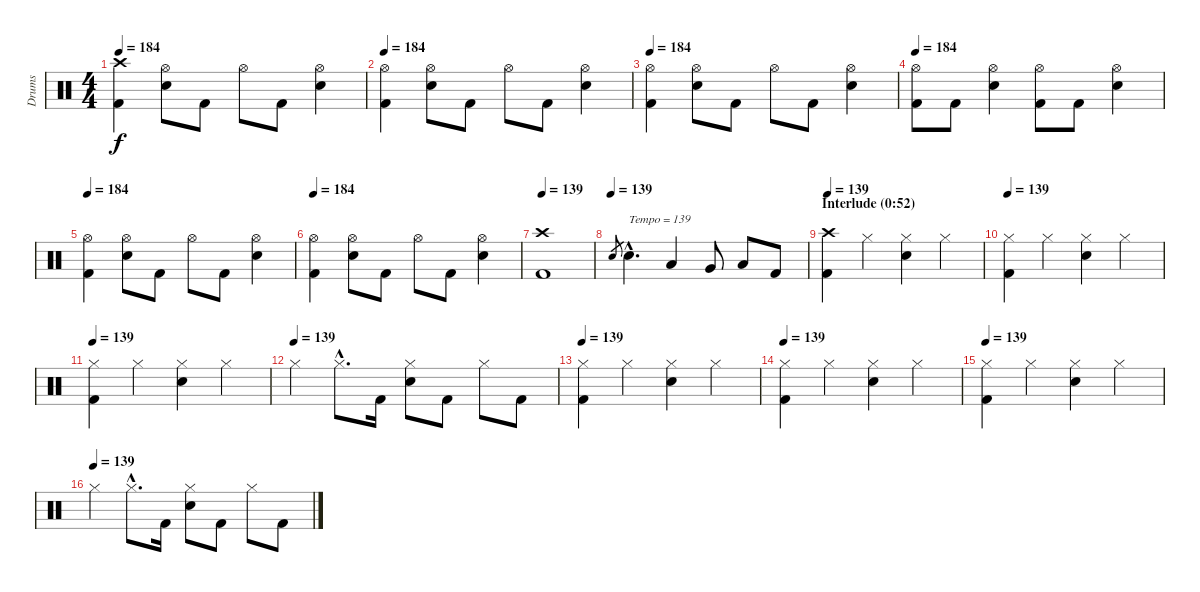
\track ("Drums" "Drums") {instrument percussion}
\staff {score}
\articulation defaults
\ts (4 4)
\tempo 184
\clef neutral
\ks c
("Crash high (hit)" "Kick (hit) 2").4{dy f} ("Hi-Hat (open)" "Snare (hit) 2").8 "Kick (hit) 2".8 "Hi-Hat (open)".8 "Kick (hit) 2".8 ("Hi-Hat (open)" "Snare (hit) 2").4 |
\tempo 184
("Hi-Hat (open)" "Kick (hit) 2").4 ("Hi-Hat (open)" "Snare (hit) 2").8 "Kick (hit) 2".8 "Hi-Hat (open)".8 "Kick (hit) 2".8 ("Hi-Hat (open)" "Snare (hit) 2").4 |
\tempo 184
("Hi-Hat (open)" "Kick (hit) 2").4 ("Hi-Hat (open)" "Snare (hit) 2").8 "Kick (hit) 2".8 "Hi-Hat (open)".8 "Kick (hit) 2".8 ("Hi-Hat (open)" "Snare (hit) 2").4 |
\tempo 184
("Hi-Hat (open)" "Kick (hit) 2").8 "Kick (hit) 2".8 ("Hi-Hat (open)" "Snare (hit) 2").4 ("Hi-Hat (open)" "Kick (hit) 2").8 "Kick (hit) 2".8 ("Hi-Hat (open)" "Snare (hit) 2").4 |
\tempo 184
("Hi-Hat (open)" "Kick (hit) 2").4 ("Hi-Hat (open)" "Snare (hit) 2").8 "Kick (hit) 2".8 "Hi-Hat (open)".8 "Kick (hit) 2".8 ("Hi-Hat (open)" "Snare (hit) 2").4 |
\tempo 184
("Hi-Hat (open)" "Kick (hit) 2").4 ("Hi-Hat (open)" "Snare (hit) 2").8 "Kick (hit) 2".8 "Hi-Hat (open)".8 "Kick (hit) 2".8 ("Hi-Hat (open)" "Snare (hit) 2").4 |
\tempo 139
("Crash high (hit)" "Kick (hit) 2").1 |
\tempo (139)
"Snare (hit) 2".8{gr} "Snare (hit) 2"{hac}.4{d txt "Tempo = 139"} "Low Tom (hit)".4 "Very Low Tom (hit)".8 "Low Floor Tom (hit)".8 "Kick (hit) 2".8 |
\section ("" "Interlude (0:52)")
\tempo 139
("Crash high (hit)" "Kick (hit) 2").4 "Hi-Hat (closed)".4 ("Hi-Hat (closed)" "Snare (hit) 2").4 "Hi-Hat (closed)".4 |
\tempo 139
("Hi-Hat (closed)" "Kick (hit) 2").4 "Hi-Hat (closed)".4 ("Hi-Hat (closed)" "Snare (hit) 2").4 "Hi-Hat (closed)".4 |
\tempo 139
("Hi-Hat (closed)" "Kick (hit) 2").4 "Hi-Hat (closed)".4 ("Hi-Hat (closed)" "Snare (hit) 2").4 "Hi-Hat (closed)".4 |
\tempo (139)
"Hi-Hat (closed)".4 "Hi-Hat (closed)"{hac}.8{d} "Kick (hit) 2".16 ("Hi-Hat (closed)" "Snare (hit) 2").8 "Kick (hit) 2".8 "Hi-Hat (closed)".8 "Kick (hit) 2".8 |
\tempo 139
("Hi-Hat (closed)" "Kick (hit) 2").4 "Hi-Hat (closed)".4 ("Hi-Hat (closed)" "Snare (hit) 2").4 "Hi-Hat (closed)".4 |
\tempo 139
("Hi-Hat (closed)" "Kick (hit) 2").4 "Hi-Hat (closed)".4 ("Hi-Hat (closed)" "Snare (hit) 2").4 "Hi-Hat (closed)".4 |
\tempo 139
("Hi-Hat (closed)" "Kick (hit) 2").4 "Hi-Hat (closed)".4 ("Hi-Hat (closed)" "Snare (hit) 2").4 "Hi-Hat (closed)".4 |
\tempo (139)
"Hi-Hat (closed)".4 "Hi-Hat (closed)"{hac}.8{d} "Kick (hit) 2".16 ("Hi-Hat (closed)" "Snare (hit) 2").8 "Kick (hit) 2".8 "Hi-Hat (closed)".8 "Kick (hit) 2".8
